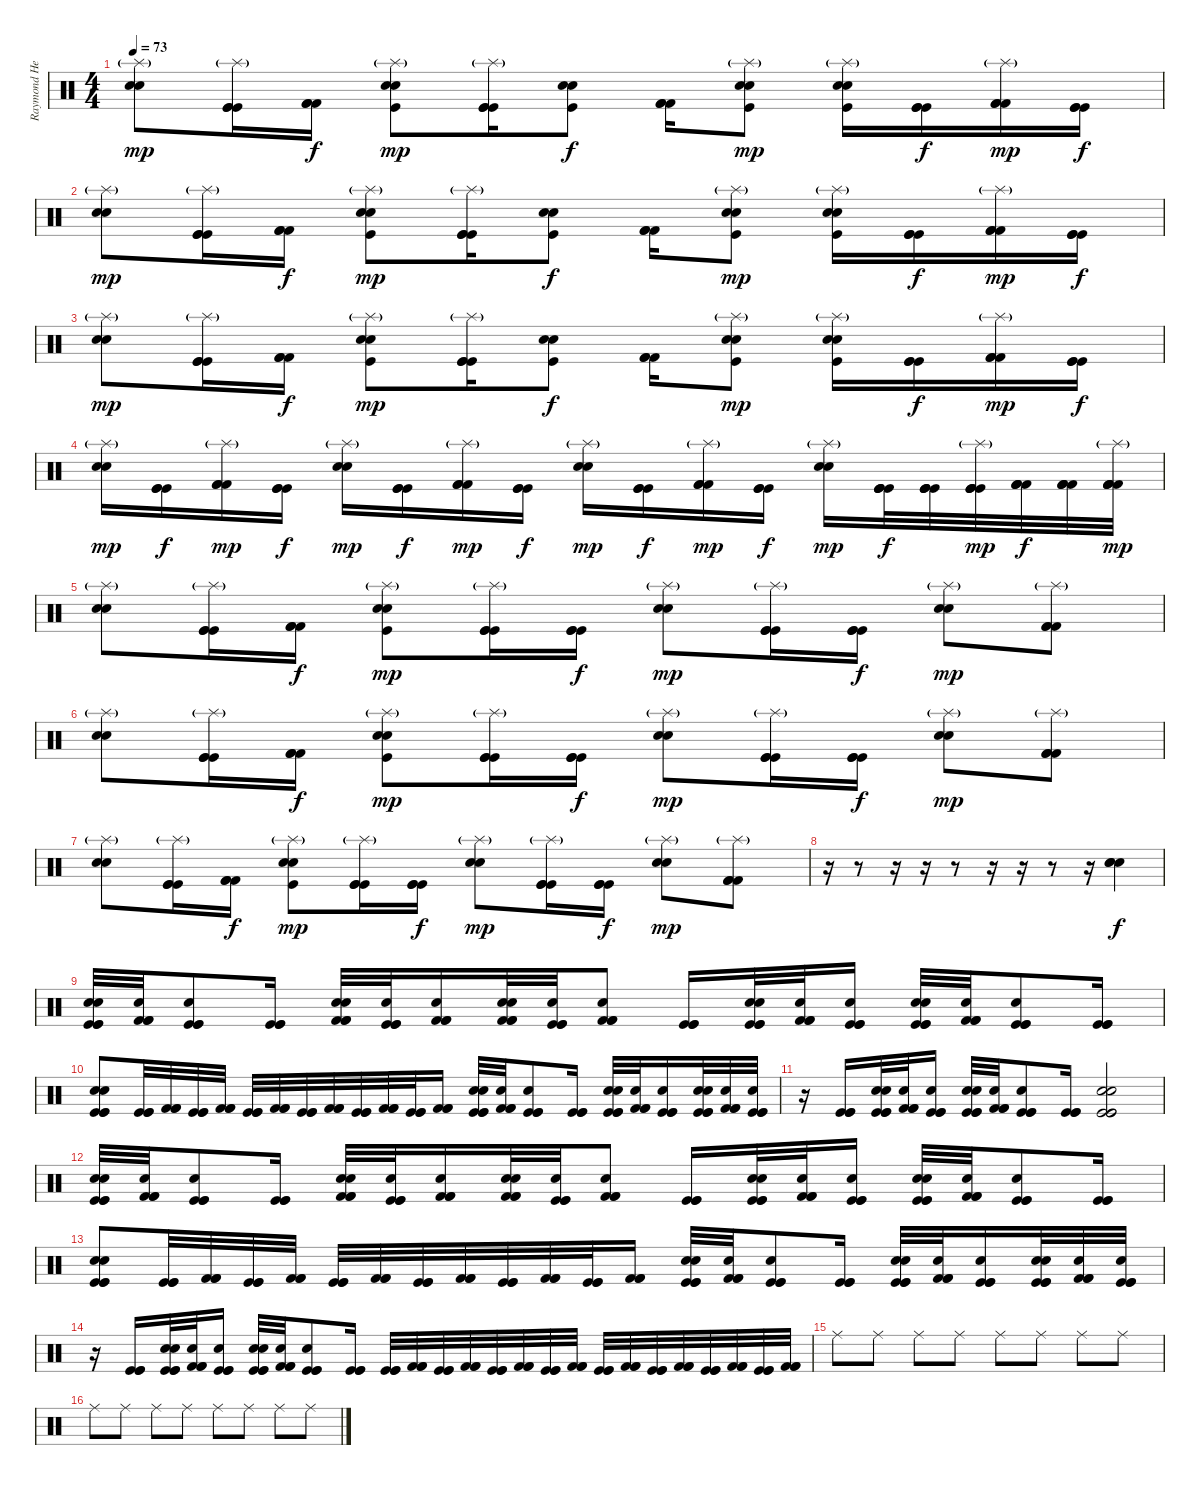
\track ("Raymond Herrera" "Raymond He") {instrument percussion}
\staff {score}
\articulation defaults
\ts (4 4)
\tempo 73
\clef neutral
\ks c
("Splash (hit)"{g} "Electric Snare (hit)" "Electric Snare (hit)").8{dy mp} ("Splash (hit)"{g} "Kick (hit)" "Kick (hit)" "Kick (hit)").16 ("Kick (hit) 2" "Kick (hit) 2" "Kick (hit) 2").16{dy f} ("Splash (hit)"{g} "Electric Snare (hit)" "Electric Snare (hit)" "Kick (hit)").8{dy mp} ("Splash (hit)"{g} "Kick (hit)" "Kick (hit)" "Kick (hit)").16 ("Electric Snare (hit)" "Electric Snare (hit)" "Kick (hit)").8{dy f} ("Kick (hit) 2" "Kick (hit) 2" "Kick (hit) 2").16 ("Splash (hit)"{g} "Electric Snare (hit)" "Electric Snare (hit)" "Kick (hit)").8{dy mp} ("Splash (hit)"{g} "Electric Snare (hit)" "Electric Snare (hit)" "Kick (hit)").16 ("Kick (hit)" "Kick (hit)" "Kick (hit)").16{dy f} ("Splash (hit)"{g} "Kick (hit) 2" "Kick (hit) 2" "Kick (hit) 2").16{dy mp} ("Kick (hit)" "Kick (hit)" "Kick (hit)").16{dy f} |
("Splash (hit)"{g} "Electric Snare (hit)" "Electric Snare (hit)").8{dy mp} ("Splash (hit)"{g} "Kick (hit)" "Kick (hit)" "Kick (hit)").16 ("Kick (hit) 2" "Kick (hit) 2" "Kick (hit) 2").16{dy f} ("Splash (hit)"{g} "Electric Snare (hit)" "Electric Snare (hit)" "Kick (hit)").8{dy mp} ("Splash (hit)"{g} "Kick (hit)" "Kick (hit)" "Kick (hit)").16 ("Electric Snare (hit)" "Electric Snare (hit)" "Kick (hit)").8{dy f} ("Kick (hit) 2" "Kick (hit) 2" "Kick (hit) 2").16 ("Splash (hit)"{g} "Electric Snare (hit)" "Electric Snare (hit)" "Kick (hit)").8{dy mp} ("Splash (hit)"{g} "Electric Snare (hit)" "Electric Snare (hit)" "Kick (hit)").16 ("Kick (hit)" "Kick (hit)" "Kick (hit)").16{dy f} ("Splash (hit)"{g} "Kick (hit) 2" "Kick (hit) 2" "Kick (hit) 2").16{dy mp} ("Kick (hit)" "Kick (hit)" "Kick (hit)").16{dy f} |
("Splash (hit)"{g} "Electric Snare (hit)" "Electric Snare (hit)").8{dy mp} ("Splash (hit)"{g} "Kick (hit)" "Kick (hit)" "Kick (hit)").16 ("Kick (hit) 2" "Kick (hit) 2" "Kick (hit) 2").16{dy f} ("Splash (hit)"{g} "Electric Snare (hit)" "Electric Snare (hit)" "Kick (hit)").8{dy mp} ("Splash (hit)"{g} "Kick (hit)" "Kick (hit)" "Kick (hit)").16 ("Electric Snare (hit)" "Electric Snare (hit)" "Kick (hit)").8{dy f} ("Kick (hit) 2" "Kick (hit) 2" "Kick (hit) 2").16 ("Splash (hit)"{g} "Electric Snare (hit)" "Electric Snare (hit)" "Kick (hit)").8{dy mp} ("Splash (hit)"{g} "Electric Snare (hit)" "Electric Snare (hit)" "Kick (hit)").16 ("Kick (hit)" "Kick (hit)" "Kick (hit)").16{dy f} ("Splash (hit)"{g} "Kick (hit) 2" "Kick (hit) 2" "Kick (hit) 2").16{dy mp} ("Kick (hit)" "Kick (hit)" "Kick (hit)").16{dy f} |
("Splash (hit)"{g} "Electric Snare (hit)" "Electric Snare (hit)").16{dy mp} ("Kick (hit)" "Kick (hit)" "Kick (hit)").16{dy f} ("Splash (hit)"{g} "Kick (hit) 2" "Kick (hit) 2" "Kick (hit) 2").16{dy mp} ("Kick (hit)" "Kick (hit)" "Kick (hit)").16{dy f} ("Splash (hit)"{g} "Electric Snare (hit)" "Electric Snare (hit)").16{dy mp} ("Kick (hit)" "Kick (hit)" "Kick (hit)").16{dy f} ("Splash (hit)"{g} "Kick (hit) 2" "Kick (hit) 2" "Kick (hit) 2").16{dy mp} ("Kick (hit)" "Kick (hit)" "Kick (hit)").16{dy f} ("Splash (hit)"{g} "Electric Snare (hit)" "Electric Snare (hit)").16{dy mp} ("Kick (hit)" "Kick (hit)" "Kick (hit)").16{dy f} ("Splash (hit)"{g} "Kick (hit) 2" "Kick (hit) 2" "Kick (hit) 2").16{dy mp} ("Kick (hit)" "Kick (hit)" "Kick (hit)").16{dy f} ("Splash (hit)"{g} "Electric Snare (hit)" "Electric Snare (hit)").16{dy mp} ("Kick (hit)" "Kick (hit)" "Kick (hit)" "Kick (hit)").32{dy f} ("Kick (hit)" "Kick (hit)" "Kick (hit)" "Kick (hit)").32 ("Splash (hit)"{g} "Kick (hit)" "Kick (hit)" "Kick (hit)" "Kick (hit)").32{dy mp} ("Kick (hit) 2" "Kick (hit) 2" "Kick (hit) 2" "Kick (hit) 2").32{dy f} ("Kick (hit) 2" "Kick (hit) 2" "Kick (hit) 2" "Kick (hit) 2").32 ("Splash (hit)"{g} "Kick (hit) 2" "Kick (hit) 2" "Kick (hit) 2" "Kick (hit) 2").32{dy mp} |
("Splash (hit)"{g} "Electric Snare (hit)" "Electric Snare (hit)").8 ("Splash (hit)"{g} "Kick (hit)" "Kick (hit)" "Kick (hit)").16 ("Kick (hit) 2" "Kick (hit) 2" "Kick (hit) 2").16{dy f} ("Splash (hit)"{g} "Electric Snare (hit)" "Electric Snare (hit)" "Kick (hit)").8{dy mp} ("Splash (hit)"{g} "Kick (hit)" "Kick (hit)" "Kick (hit)").16 ("Kick (hit)" "Kick (hit)" "Kick (hit)").16{dy f} ("Splash (hit)"{g} "Electric Snare (hit)" "Electric Snare (hit)").8{dy mp} ("Splash (hit)"{g} "Kick (hit)" "Kick (hit)" "Kick (hit)").16 ("Kick (hit)" "Kick (hit)" "Kick (hit)").16{dy f} ("Splash (hit)"{g} "Electric Snare (hit)" "Electric Snare (hit)").8{dy mp} ("Splash (hit)"{g} "Kick (hit) 2" "Kick (hit) 2" "Kick (hit) 2").8 |
("Splash (hit)"{g} "Electric Snare (hit)" "Electric Snare (hit)").8 ("Splash (hit)"{g} "Kick (hit)" "Kick (hit)" "Kick (hit)").16 ("Kick (hit) 2" "Kick (hit) 2" "Kick (hit) 2").16{dy f} ("Splash (hit)"{g} "Electric Snare (hit)" "Electric Snare (hit)" "Kick (hit)").8{dy mp} ("Splash (hit)"{g} "Kick (hit)" "Kick (hit)" "Kick (hit)").16 ("Kick (hit)" "Kick (hit)" "Kick (hit)").16{dy f} ("Splash (hit)"{g} "Electric Snare (hit)" "Electric Snare (hit)").8{dy mp} ("Splash (hit)"{g} "Kick (hit)" "Kick (hit)" "Kick (hit)").16 ("Kick (hit)" "Kick (hit)" "Kick (hit)").16{dy f} ("Splash (hit)"{g} "Electric Snare (hit)" "Electric Snare (hit)").8{dy mp} ("Splash (hit)"{g} "Kick (hit) 2" "Kick (hit) 2" "Kick (hit) 2").8 |
("Splash (hit)"{g} "Electric Snare (hit)" "Electric Snare (hit)").8 ("Splash (hit)"{g} "Kick (hit)" "Kick (hit)" "Kick (hit)").16 ("Kick (hit) 2" "Kick (hit) 2" "Kick (hit) 2").16{dy f} ("Splash (hit)"{g} "Electric Snare (hit)" "Electric Snare (hit)" "Kick (hit)").8{dy mp} ("Splash (hit)"{g} "Kick (hit)" "Kick (hit)" "Kick (hit)").16 ("Kick (hit)" "Kick (hit)" "Kick (hit)").16{dy f} ("Splash (hit)"{g} "Electric Snare (hit)" "Electric Snare (hit)").8{dy mp} ("Splash (hit)"{g} "Kick (hit)" "Kick (hit)" "Kick (hit)").16 ("Kick (hit)" "Kick (hit)" "Kick (hit)").16{dy f} ("Splash (hit)"{g} "Electric Snare (hit)" "Electric Snare (hit)").8{dy mp} ("Splash (hit)"{g} "Kick (hit) 2" "Kick (hit) 2" "Kick (hit) 2").8 |
r.16 r.8 r.16 r.16 r.8 r.16 r.16 r.8 r.16 ("Electric Snare (hit)" "Electric Snare (hit)" "Electric Snare (hit)").4{dy f} |
("Electric Snare (hit)" "Electric Snare (hit)" "Kick (hit)" "Kick (hit)" "Kick (hit)").32 ("Electric Snare (hit)" "Kick (hit) 2" "Kick (hit) 2" "Kick (hit) 2").32 ("Electric Snare (hit)" "Kick (hit)" "Kick (hit)" "Kick (hit)").8 ("Kick (hit)" "Kick (hit)" "Kick (hit)").16 ("Electric Snare (hit)" "Electric Snare (hit)" "Kick (hit) 2" "Kick (hit) 2" "Kick (hit) 2").32 ("Electric Snare (hit)" "Kick (hit)" "Kick (hit)" "Kick (hit)").32 ("Electric Snare (hit)" "Kick (hit) 2" "Kick (hit) 2" "Kick (hit) 2").16 ("Electric Snare (hit)" "Electric Snare (hit)" "Kick (hit) 2" "Kick (hit) 2" "Kick (hit) 2").32 ("Electric Snare (hit)" "Kick (hit)" "Kick (hit)" "Kick (hit)").32 ("Electric Snare (hit)" "Kick (hit) 2" "Kick (hit) 2" "Kick (hit) 2").8 ("Kick (hit)" "Kick (hit)" "Kick (hit)").16 ("Electric Snare (hit)" "Electric Snare (hit)" "Kick (hit)" "Kick (hit)" "Kick (hit)").32 ("Electric Snare (hit)" "Kick (hit) 2" "Kick (hit) 2" "Kick (hit) 2").32 ("Electric Snare (hit)" "Kick (hit)" "Kick (hit)" "Kick (hit)").16 ("Electric Snare (hit)" "Electric Snare (hit)" "Kick (hit)" "Kick (hit)" "Kick (hit)").32 ("Electric Snare (hit)" "Kick (hit) 2" "Kick (hit) 2" "Kick (hit) 2").32 ("Electric Snare (hit)" "Kick (hit)" "Kick (hit)" "Kick (hit)").8 ("Kick (hit)" "Kick (hit)" "Kick (hit)").16 |
("Electric Snare (hit)" "Electric Snare (hit)" "Kick (hit)" "Kick (hit)" "Kick (hit)").8 ("Kick (hit)" "Kick (hit)" "Kick (hit)").32 ("Kick (hit) 2" "Kick (hit) 2" "Kick (hit) 2").32 ("Kick (hit)" "Kick (hit)" "Kick (hit)").32 ("Kick (hit) 2" "Kick (hit) 2" "Kick (hit) 2").32 ("Kick (hit)" "Kick (hit)" "Kick (hit)").32 ("Kick (hit) 2" "Kick (hit) 2" "Kick (hit) 2").32 ("Kick (hit)" "Kick (hit)" "Kick (hit)").32 ("Kick (hit) 2" "Kick (hit) 2" "Kick (hit) 2").32 ("Kick (hit)" "Kick (hit)" "Kick (hit)").32 ("Kick (hit) 2" "Kick (hit) 2" "Kick (hit) 2").32 ("Kick (hit)" "Kick (hit)" "Kick (hit)").32 ("Kick (hit) 2" "Kick (hit) 2" "Kick (hit) 2").16 ("Electric Snare (hit)" "Electric Snare (hit)" "Kick (hit)" "Kick (hit)" "Kick (hit)").32 ("Electric Snare (hit)" "Kick (hit) 2" "Kick (hit) 2" "Kick (hit) 2").32 ("Electric Snare (hit)" "Kick (hit)" "Kick (hit)" "Kick (hit)").8 ("Kick (hit)" "Kick (hit)" "Kick (hit)").16 ("Electric Snare (hit)" "Electric Snare (hit)" "Kick (hit)" "Kick (hit)" "Kick (hit)").32 ("Electric Snare (hit)" "Kick (hit) 2" "Kick (hit) 2" "Kick (hit) 2").32 ("Electric Snare (hit)" "Kick (hit)" "Kick (hit)" "Kick (hit)").16 ("Electric Snare (hit)" "Electric Snare (hit)" "Kick (hit)" "Kick (hit)" "Kick (hit)").32 ("Electric Snare (hit)" "Kick (hit) 2" "Kick (hit) 2" "Kick (hit) 2").32 ("Electric Snare (hit)" "Kick (hit)" "Kick (hit)" "Kick (hit)").32 |
r.16 ("Kick (hit)" "Kick (hit)" "Kick (hit)").16 ("Electric Snare (hit)" "Electric Snare (hit)" "Kick (hit)" "Kick (hit)" "Kick (hit)").32 ("Electric Snare (hit)" "Kick (hit) 2" "Kick (hit) 2" "Kick (hit) 2").32 ("Electric Snare (hit)" "Kick (hit)" "Kick (hit)" "Kick (hit)").16 ("Electric Snare (hit)" "Electric Snare (hit)" "Kick (hit)" "Kick (hit)" "Kick (hit)").32 ("Electric Snare (hit)" "Kick (hit) 2" "Kick (hit) 2" "Kick (hit) 2").32 ("Electric Snare (hit)" "Kick (hit)" "Kick (hit)" "Kick (hit)").8 ("Kick (hit)" "Kick (hit)" "Kick (hit)").16 ("Electric Snare (hit)" "Electric Snare (hit)" "Kick (hit)" "Kick (hit)" "Kick (hit)").2 |
("Electric Snare (hit)" "Electric Snare (hit)" "Kick (hit)" "Kick (hit)" "Kick (hit)").32 ("Electric Snare (hit)" "Kick (hit) 2" "Kick (hit) 2" "Kick (hit) 2").32 ("Electric Snare (hit)" "Kick (hit)" "Kick (hit)" "Kick (hit)").8 ("Kick (hit)" "Kick (hit)" "Kick (hit)").16 ("Electric Snare (hit)" "Electric Snare (hit)" "Kick (hit) 2" "Kick (hit) 2" "Kick (hit) 2").32 ("Electric Snare (hit)" "Kick (hit)" "Kick (hit)" "Kick (hit)").32 ("Electric Snare (hit)" "Kick (hit) 2" "Kick (hit) 2" "Kick (hit) 2").16 ("Electric Snare (hit)" "Electric Snare (hit)" "Kick (hit) 2" "Kick (hit) 2" "Kick (hit) 2").32 ("Electric Snare (hit)" "Kick (hit)" "Kick (hit)" "Kick (hit)").32 ("Electric Snare (hit)" "Kick (hit) 2" "Kick (hit) 2" "Kick (hit) 2").8 ("Kick (hit)" "Kick (hit)" "Kick (hit)").16 ("Electric Snare (hit)" "Electric Snare (hit)" "Kick (hit)" "Kick (hit)" "Kick (hit)").32 ("Electric Snare (hit)" "Kick (hit) 2" "Kick (hit) 2" "Kick (hit) 2").32 ("Electric Snare (hit)" "Kick (hit)" "Kick (hit)" "Kick (hit)").16 ("Electric Snare (hit)" "Electric Snare (hit)" "Kick (hit)" "Kick (hit)" "Kick (hit)").32 ("Electric Snare (hit)" "Kick (hit) 2" "Kick (hit) 2" "Kick (hit) 2").32 ("Electric Snare (hit)" "Kick (hit)" "Kick (hit)" "Kick (hit)").8 ("Kick (hit)" "Kick (hit)" "Kick (hit)").16 |
("Electric Snare (hit)" "Electric Snare (hit)" "Kick (hit)" "Kick (hit)" "Kick (hit)").8 ("Kick (hit)" "Kick (hit)" "Kick (hit)").32 ("Kick (hit) 2" "Kick (hit) 2" "Kick (hit) 2").32 ("Kick (hit)" "Kick (hit)" "Kick (hit)").32 ("Kick (hit) 2" "Kick (hit) 2" "Kick (hit) 2").32 ("Kick (hit)" "Kick (hit)" "Kick (hit)").32 ("Kick (hit) 2" "Kick (hit) 2" "Kick (hit) 2").32 ("Kick (hit)" "Kick (hit)" "Kick (hit)").32 ("Kick (hit) 2" "Kick (hit) 2" "Kick (hit) 2").32 ("Kick (hit)" "Kick (hit)" "Kick (hit)").32 ("Kick (hit) 2" "Kick (hit) 2" "Kick (hit) 2").32 ("Kick (hit)" "Kick (hit)" "Kick (hit)").32 ("Kick (hit) 2" "Kick (hit) 2" "Kick (hit) 2").16 ("Electric Snare (hit)" "Electric Snare (hit)" "Kick (hit)" "Kick (hit)" "Kick (hit)").32 ("Electric Snare (hit)" "Kick (hit) 2" "Kick (hit) 2" "Kick (hit) 2").32 ("Electric Snare (hit)" "Kick (hit)" "Kick (hit)" "Kick (hit)").8 ("Kick (hit)" "Kick (hit)" "Kick (hit)").16 ("Electric Snare (hit)" "Electric Snare (hit)" "Kick (hit)" "Kick (hit)" "Kick (hit)").32 ("Electric Snare (hit)" "Kick (hit) 2" "Kick (hit) 2" "Kick (hit) 2").32 ("Electric Snare (hit)" "Kick (hit)" "Kick (hit)" "Kick (hit)").16 ("Electric Snare (hit)" "Electric Snare (hit)" "Kick (hit)" "Kick (hit)" "Kick (hit)").32 ("Electric Snare (hit)" "Kick (hit) 2" "Kick (hit) 2" "Kick (hit) 2").32 ("Electric Snare (hit)" "Kick (hit)" "Kick (hit)" "Kick (hit)").32 |
r.16 ("Kick (hit)" "Kick (hit)" "Kick (hit)").16 ("Electric Snare (hit)" "Electric Snare (hit)" "Kick (hit)" "Kick (hit)" "Kick (hit)").32 ("Electric Snare (hit)" "Kick (hit) 2" "Kick (hit) 2" "Kick (hit) 2").32 ("Electric Snare (hit)" "Kick (hit)" "Kick (hit)" "Kick (hit)").16 ("Electric Snare (hit)" "Electric Snare (hit)" "Kick (hit)" "Kick (hit)" "Kick (hit)").32 ("Electric Snare (hit)" "Kick (hit) 2" "Kick (hit) 2" "Kick (hit) 2").32 ("Electric Snare (hit)" "Kick (hit)" "Kick (hit)" "Kick (hit)").8 ("Kick (hit)" "Kick (hit)" "Kick (hit)").16 ("Kick (hit)" "Kick (hit)" "Kick (hit)").32 ("Kick (hit) 2" "Kick (hit) 2" "Kick (hit) 2").32 ("Kick (hit)" "Kick (hit)" "Kick (hit)").32 ("Kick (hit) 2" "Kick (hit) 2" "Kick (hit) 2").32 ("Kick (hit)" "Kick (hit)" "Kick (hit)").32 ("Kick (hit) 2" "Kick (hit) 2" "Kick (hit) 2").32 ("Kick (hit)" "Kick (hit)" "Kick (hit)").32 ("Kick (hit) 2" "Kick (hit) 2" "Kick (hit) 2").32 ("Kick (hit)" "Kick (hit)" "Kick (hit)").32 ("Kick (hit) 2" "Kick (hit) 2" "Kick (hit) 2").32 ("Kick (hit)" "Kick (hit)" "Kick (hit)").32 ("Kick (hit) 2" "Kick (hit) 2" "Kick (hit) 2").32 ("Kick (hit)" "Kick (hit)" "Kick (hit)").32 ("Kick (hit) 2" "Kick (hit) 2" "Kick (hit) 2").32 ("Kick (hit)" "Kick (hit)" "Kick (hit)").32 ("Kick (hit) 2" "Kick (hit) 2" "Kick (hit) 2").32 |
"Ride (middle)".8 "Ride (middle)".8 "Ride (middle)".8 "Ride (middle)".8 "Ride (middle)".8 "Ride (middle)".8 "Ride (middle)".8 "Ride (middle)".8 |
"Ride (middle)".8 "Ride (middle)".8 "Ride (middle)".8 "Ride (middle)".8 "Ride (middle)".8 "Ride (middle)".8 "Ride (middle)".8 "Ride (middle)".8
